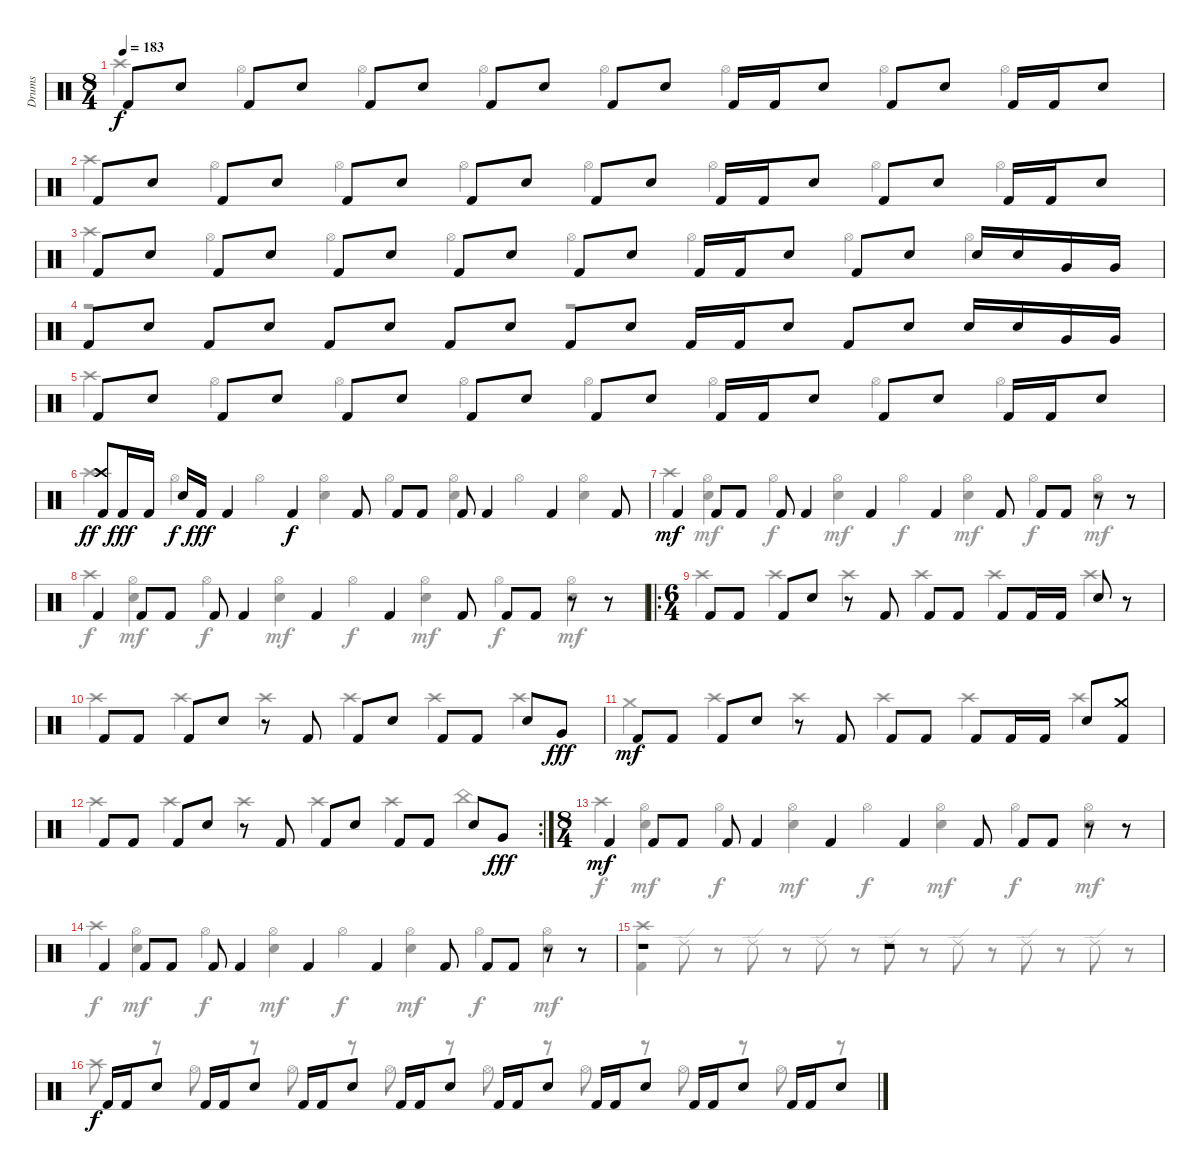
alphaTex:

\track ("Drums" "Drums") {instrument percussion}
\staff {score}
\articulation defaults
\voice
\ts (8 4)
\tempo 183
\clef neutral
\ks c "Kick (hit) 2".8{dy f} "Electric Snare (hit)".8 "Kick (hit) 2".8 "Electric Snare (hit)".8 "Kick (hit) 2".8 "Electric Snare (hit)".8 "Kick (hit) 2".8 "Electric Snare (hit)".8 "Kick (hit) 2".8 "Electric Snare (hit)".8 "Kick (hit) 2".16 "Kick (hit) 2".16 "Electric Snare (hit)".8 "Kick (hit) 2".8 "Electric Snare (hit)".8 "Kick (hit) 2".16 "Kick (hit) 2".16 "Electric Snare (hit)".8
|
"Kick (hit) 2".8 "Electric Snare (hit)".8 "Kick (hit) 2".8 "Electric Snare (hit)".8 "Kick (hit) 2".8 "Electric Snare (hit)".8 "Kick (hit) 2".8 "Electric Snare (hit)".8 "Kick (hit) 2".8 "Electric Snare (hit)".8 "Kick (hit) 2".16 "Kick (hit) 2".16 "Electric Snare (hit)".8 "Kick (hit) 2".8 "Electric Snare (hit)".8 "Kick (hit) 2".16 "Kick (hit) 2".16 "Electric Snare (hit)".8 |
"Kick (hit) 2".8 "Electric Snare (hit)".8 "Kick (hit) 2".8 "Electric Snare (hit)".8 "Kick (hit) 2".8 "Electric Snare (hit)".8 "Kick (hit) 2".8 "Electric Snare (hit)".8 "Kick (hit) 2".8 "Electric Snare (hit)".8 "Kick (hit) 2".16 "Kick (hit) 2".16 "Electric Snare (hit)".8 "Kick (hit) 2".8 "Electric Snare (hit)".8 "Electric Snare (hit)".16 "Electric Snare (hit)".16 "Very Low Tom (hit)".16 "Very Low Tom (hit)".16 |
"Kick (hit) 2".8 "Electric Snare (hit)".8 "Kick (hit) 2".8 "Electric Snare (hit)".8 "Kick (hit) 2".8 "Electric Snare (hit)".8 "Kick (hit) 2".8 "Electric Snare (hit)".8 "Kick (hit) 2".8 "Electric Snare (hit)".8 "Kick (hit) 2".16 "Kick (hit) 2".16 "Electric Snare (hit)".8 "Kick (hit) 2".8 "Electric Snare (hit)".8 "Electric Snare (hit)".16 "Electric Snare (hit)".16 "Very Low Tom (hit)".16 "Very Low Tom (hit)".16 |
"Kick (hit) 2".8 "Electric Snare (hit)".8 "Kick (hit) 2".8 "Electric Snare (hit)".8 "Kick (hit) 2".8 "Electric Snare (hit)".8 "Kick (hit) 2".8 "Electric Snare (hit)".8 "Kick (hit) 2".8 "Electric Snare (hit)".8 "Kick (hit) 2".16 "Kick (hit) 2".16 "Electric Snare (hit)".8 "Kick (hit) 2".8 "Electric Snare (hit)".8 "Kick (hit) 2".16 "Kick (hit) 2".16 "Electric Snare (hit)".8 |
("Crash high (hit)" "Kick (hit) 2").8{dy ff} "Kick (hit) 2".16{dy fff} "Kick (hit) 2".16 "Electric Snare (hit)".16{dy f} "Kick (hit) 2".16{dy fff} "Kick (hit) 2".4 "Kick (hit) 2".4{dy f} "Kick (hit) 2".8 "Kick (hit) 2".8 "Kick (hit) 2".8 "Kick (hit) 2".8 "Kick (hit) 2".4 "Kick (hit) 2".4 "Kick (hit) 2".8 |
"Kick (hit) 2".4{dy mf} "Kick (hit) 2".8 "Kick (hit) 2".8 "Kick (hit) 2".8 "Kick (hit) 2".4 "Kick (hit) 2".4 "Kick (hit) 2".4 "Kick (hit) 2".8 "Kick (hit) 2".8 "Kick (hit) 2".8 r.8 r.8 |
"Kick (hit) 2".4 "Kick (hit) 2".8 "Kick (hit) 2".8 "Kick (hit) 2".8 "Kick (hit) 2".4 "Kick (hit) 2".4 "Kick (hit) 2".4 "Kick (hit) 2".8 "Kick (hit) 2".8 "Kick (hit) 2".8 r.8 r.8 |
\ro
\ts (6 4)
"Kick (hit) 2".8 "Kick (hit) 2".8 "Kick (hit) 2".8 "Electric Snare (hit)".8 r.8 "Kick (hit) 2".8 "Kick (hit) 2".8 "Kick (hit) 2".8 "Kick (hit) 2".8 "Kick (hit) 2".16 "Kick (hit) 2".16 "Electric Snare (hit)".8 r.8 |
"Kick (hit) 2".8 "Kick (hit) 2".8 "Kick (hit) 2".8 "Electric Snare (hit)".8 r.8 "Kick (hit) 2".8 "Kick (hit) 2".8 "Electric Snare (hit)".8 "Kick (hit) 2".8 "Kick (hit) 2".8 "Electric Snare (hit)".8 "Very Low Tom (hit)".8{dy fff} |
"Kick (hit) 2".8{dy mf} "Kick (hit) 2".8 "Kick (hit) 2".8 "Electric Snare (hit)".8 r.8 "Kick (hit) 2".8 "Kick (hit) 2".8 "Kick (hit) 2".8 "Kick (hit) 2".8 "Kick (hit) 2".16 "Kick (hit) 2".16 "Electric Snare (hit)".8 ("Crash medium (hit)" "Kick (hit) 2").8 |
\rc 2 "Kick (hit) 2".8 "Kick (hit) 2".8 "Kick (hit) 2".8 "Electric Snare (hit)".8
r.8 "Kick (hit) 2".8 "Kick (hit) 2".8 "Electric Snare (hit)".8 "Kick (hit) 2".8 "Kick (hit) 2".8 "Electric Snare (hit)".8 "Very Low Tom (hit)".8{dy fff} |
\ts (8 4)
"Kick (hit) 2".4{dy mf} "Kick (hit) 2".8 "Kick (hit) 2".8 "Kick (hit) 2".8 "Kick (hit) 2".4 "Kick (hit) 2".4 "Kick (hit) 2".4 "Kick (hit) 2".8 "Kick (hit) 2".8 "Kick (hit) 2".8 r.8 r.8 |
"Kick (hit) 2".4 "Kick (hit) 2".8 "Kick (hit) 2".8 "Kick (hit) 2".8 "Kick (hit) 2".4 "Kick (hit) 2".4 "Kick (hit) 2".4 "Kick (hit) 2".8 "Kick (hit) 2".8 "Kick (hit) 2".8 r.8 r.8 |
r.1 r.1 |
"Kick (hit) 2".16{dy f} "Kick (hit) 2".16 "Electric Snare (hit)".8 "Kick (hit) 2".16 "Kick (hit) 2".16 "Electric Snare (hit)".8 "Kick (hit) 2".16 "Kick (hit) 2".16 "Electric Snare (hit)".8 "Kick (hit) 2".16 "Kick (hit) 2".16 "Electric Snare (hit)".8 "Kick (hit) 2".16 "Kick (hit) 2".16 "Electric Snare (hit)".8 "Kick (hit) 2".16 "Kick (hit) 2".16 "Electric Snare (hit)".8 "Kick (hit) 2".16 "Kick (hit) 2".16 "Electric Snare (hit)".8 "Kick (hit) 2".16 "Kick (hit) 2".16 "Electric Snare (hit)".8
\voice
\clef neutral
\ottava regular
\simile none
\ks c "Crash high (hit)".4{dy f} "Hi-Hat (open)".4 "Hi-Hat (open)".4 "Hi-Hat (open)".4 "Hi-Hat (open)".4 "Hi-Hat (open)".4 "Hi-Hat (open)".4 "Hi-Hat (open)".4
|
"Crash high (hit)".4 "Hi-Hat (open)".4 "Hi-Hat (open)".4 "Hi-Hat (open)".4 "Hi-Hat (open)".4 "Hi-Hat (open)".4 "Hi-Hat (open)".4 "Hi-Hat (open)".4 |
"Crash high (hit)".4 "Hi-Hat (open)".4 "Hi-Hat (open)".4 "Hi-Hat (open)".4 "Hi-Hat (open)".4 "Hi-Hat (open)".4 "Hi-Hat (open)".4 "Hi-Hat (open)".4 |
r.1 r.1 |
"Crash high (hit)".4 "Hi-Hat (open)".4 "Hi-Hat (open)".4 "Hi-Hat (open)".4 "Hi-Hat (open)".4 "Hi-Hat (open)".4 "Hi-Hat (open)".4 "Hi-Hat (open)".4 |
"Crash high (hit)".4 "Hi-Hat (open)".4 "Hi-Hat (open)".4 ("Hi-Hat (open)" "Electric Snare (hit)").4 "Hi-Hat (open)".4 ("Hi-Hat (open)" "Electric Snare (hit)").4 "Hi-Hat (open)".4 ("Hi-Hat (open)" "Electric Snare (hit)").4 |
"Crash high (hit)".4 ("Hi-Hat (open)" "Electric Snare (hit)").4{dy mf} "Hi-Hat (open)".4{dy f} ("Hi-Hat (open)" "Electric Snare (hit)").4{dy mf} "Hi-Hat (open)".4{dy f} ("Hi-Hat (open)" "Electric Snare (hit)").4{dy mf} "Hi-Hat (open)".4{dy f} ("Hi-Hat (open)" "Electric Snare (hit)").4{dy mf} |
"Crash high (hit)".4{dy f} ("Hi-Hat (open)" "Electric Snare (hit)").4{dy mf} "Hi-Hat (open)".4{dy f} ("Hi-Hat (open)" "Electric Snare (hit)").4{dy mf} "Hi-Hat (open)".4{dy f} ("Hi-Hat (open)" "Electric Snare (hit)").4{dy mf} "Hi-Hat (open)".4{dy f} ("Hi-Hat (open)" "Electric Snare (hit)").4{dy mf} |
"Crash high (hit)".4 "Crash high (hit)".4 "Crash high (hit)".4 "Crash high (hit)".4 "Crash high (hit)".4 "Crash high (hit)".4 |
"Crash high (hit)".4 "Crash high (hit)".4 "Crash high (hit)".4 "Crash high (hit)".4 "Crash high (hit)".4 "Crash high (hit)".4 |
"Crash medium (hit)".4 "Crash high (hit)".4 "Crash high (hit)".4 "Crash high (hit)".4 "Crash high (hit)".4 "Crash high (hit)".4 |
"Crash high (hit)".4 "Crash high (hit)".4 "Crash high (hit)".4 "Crash high (hit)".4 "Crash high (hit)".4 "China (hit)".4 |
"Crash high (hit)".4{dy f} ("Hi-Hat (open)" "Electric Snare (hit)").4{dy mf} "Hi-Hat (open)".4{dy f} ("Hi-Hat (open)" "Electric Snare (hit)").4{dy mf} "Hi-Hat (open)".4{dy f} ("Hi-Hat (open)" "Electric Snare (hit)").4{dy mf} "Hi-Hat (open)".4{dy f} ("Hi-Hat (open)" "Electric Snare (hit)").4{dy mf} |
"Crash high (hit)".4{dy f} ("Hi-Hat (open)" "Electric Snare (hit)").4{dy mf} "Hi-Hat (open)".4{dy f} ("Hi-Hat (open)" "Electric Snare (hit)").4{dy mf} "Hi-Hat (open)".4{dy f} ("Hi-Hat (open)" "Electric Snare (hit)").4{dy mf} "Hi-Hat (open)".4{dy f} ("Hi-Hat (open)" "Electric Snare (hit)").4{dy mf} |
("Crash high (hit)" "Kick (hit) 2").4 "Ride (edge) 2".8 r.8 "Ride (edge) 2".8 r.8 "Ride (edge) 2".8 r.8 "Ride (edge) 2".8 r.8 "Ride (edge) 2".8 r.8 "Ride (edge) 2".8 r.8 "Ride (edge) 2".8 r.8 |
"Crash high (hit)".8{dy f} r.8 "Hi-Hat (open)".8 r.8 "Hi-Hat (open)".8 r.8 "Hi-Hat (open)".8 r.8 "Hi-Hat (open)".8 r.8 "Hi-Hat (open)".8 r.8 "Hi-Hat (open)".8 r.8 "Hi-Hat (open)".8 r.8
